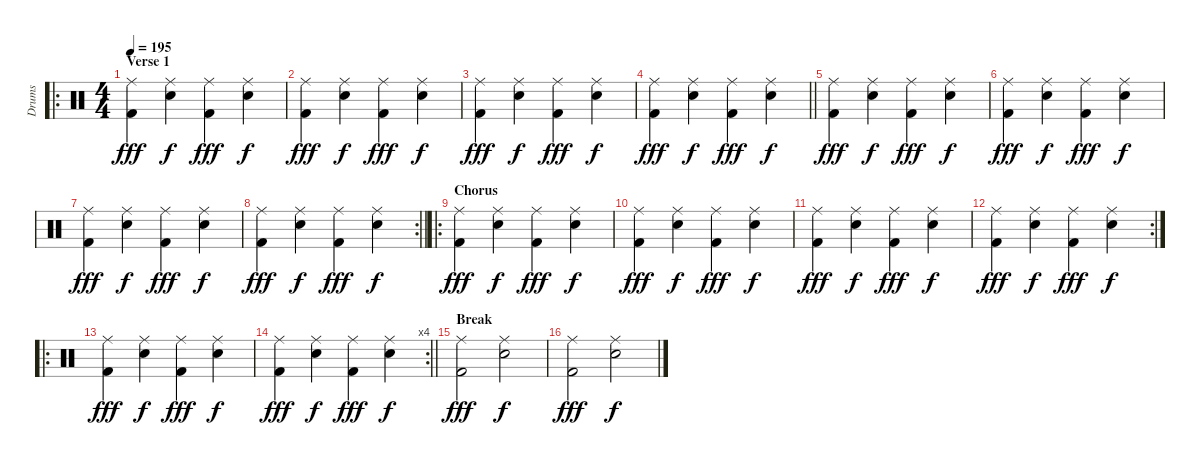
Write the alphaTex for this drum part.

\track ("Drums" "Drums") {instrument percussion}
\staff {score}
\articulation defaults
\ro
\ts (4 4)
\section ("" "Verse 1")
\tempo 195
\clef neutral
\ks c
("Ride (middle)" "Kick (hit) 2").4{dy fff} ("Ride (middle)" "Snare (hit) 2").4{dy f} ("Ride (middle)" "Kick (hit) 2").4{dy fff} ("Ride (middle)" "Snare (hit) 2").4{dy f} |
("Ride (middle)" "Kick (hit) 2").4{dy fff} ("Ride (middle)" "Snare (hit) 2").4{dy f} ("Ride (middle)" "Kick (hit) 2").4{dy fff} ("Ride (middle)" "Snare (hit) 2").4{dy f} |
("Ride (middle)" "Kick (hit) 2").4{dy fff} ("Ride (middle)" "Snare (hit) 2").4{dy f} ("Ride (middle)" "Kick (hit) 2").4{dy fff} ("Ride (middle)" "Snare (hit) 2").4{dy f} |
\barLineRight lightlight
("Ride (middle)" "Kick (hit) 2").4{dy fff} ("Ride (middle)" "Snare (hit) 2").4{dy f} ("Ride (middle)" "Kick (hit) 2").4{dy fff} ("Ride (middle)" "Snare (hit) 2").4{dy f} |
("Ride (middle)" "Kick (hit) 2").4{dy fff} ("Ride (middle)" "Snare (hit) 2").4{dy f} ("Ride (middle)" "Kick (hit) 2").4{dy fff} ("Ride (middle)" "Snare (hit) 2").4{dy f} |
("Ride (middle)" "Kick (hit) 2").4{dy fff} ("Ride (middle)" "Snare (hit) 2").4{dy f} ("Ride (middle)" "Kick (hit) 2").4{dy fff} ("Ride (middle)" "Snare (hit) 2").4{dy f} |
("Ride (middle)" "Kick (hit) 2").4{dy fff} ("Ride (middle)" "Snare (hit) 2").4{dy f} ("Ride (middle)" "Kick (hit) 2").4{dy fff} ("Ride (middle)" "Snare (hit) 2").4{dy f} |
\rc 2
\barLineRight lightlight
("Ride (middle)" "Kick (hit) 2").4{dy fff} ("Ride (middle)" "Snare (hit) 2").4{dy f} ("Ride (middle)" "Kick (hit) 2").4{dy fff} ("Ride (middle)" "Snare (hit) 2").4{dy f} |
\ro
\section ("" "Chorus")
("Ride (middle)" "Kick (hit) 2").4{dy fff} ("Ride (middle)" "Snare (hit) 2").4{dy f} ("Ride (middle)" "Kick (hit) 2").4{dy fff} ("Ride (middle)" "Snare (hit) 2").4{dy f} |
("Ride (middle)" "Kick (hit) 2").4{dy fff} ("Ride (middle)" "Snare (hit) 2").4{dy f} ("Ride (middle)" "Kick (hit) 2").4{dy fff} ("Ride (middle)" "Snare (hit) 2").4{dy f} |
("Ride (middle)" "Kick (hit) 2").4{dy fff} ("Ride (middle)" "Snare (hit) 2").4{dy f} ("Ride (middle)" "Kick (hit) 2").4{dy fff} ("Ride (middle)" "Snare (hit) 2").4{dy f} |
\rc 2
("Ride (middle)" "Kick (hit) 2").4{dy fff} ("Ride (middle)" "Snare (hit) 2").4{dy f} ("Ride (middle)" "Kick (hit) 2").4{dy fff} ("Ride (middle)" "Snare (hit) 2").4{dy f} |
\ro
("Ride (middle)" "Kick (hit) 2").4{dy fff} ("Ride (middle)" "Snare (hit) 2").4{dy f} ("Ride (middle)" "Kick (hit) 2").4{dy fff} ("Ride (middle)" "Snare (hit) 2").4{dy f} |
\rc 4
\barLineRight lightlight
("Ride (middle)" "Kick (hit) 2").4{dy fff} ("Ride (middle)" "Snare (hit) 2").4{dy f} ("Ride (middle)" "Kick (hit) 2").4{dy fff} ("Ride (middle)" "Snare (hit) 2").4{dy f} |
\section ("" "Break")
("Ride (middle)" "Kick (hit) 2").2{dy fff} ("Ride (middle)" "Snare (hit) 2").2{dy f} |
("Ride (middle)" "Kick (hit) 2").2{dy fff} ("Ride (middle)" "Snare (hit) 2").2{dy f}
